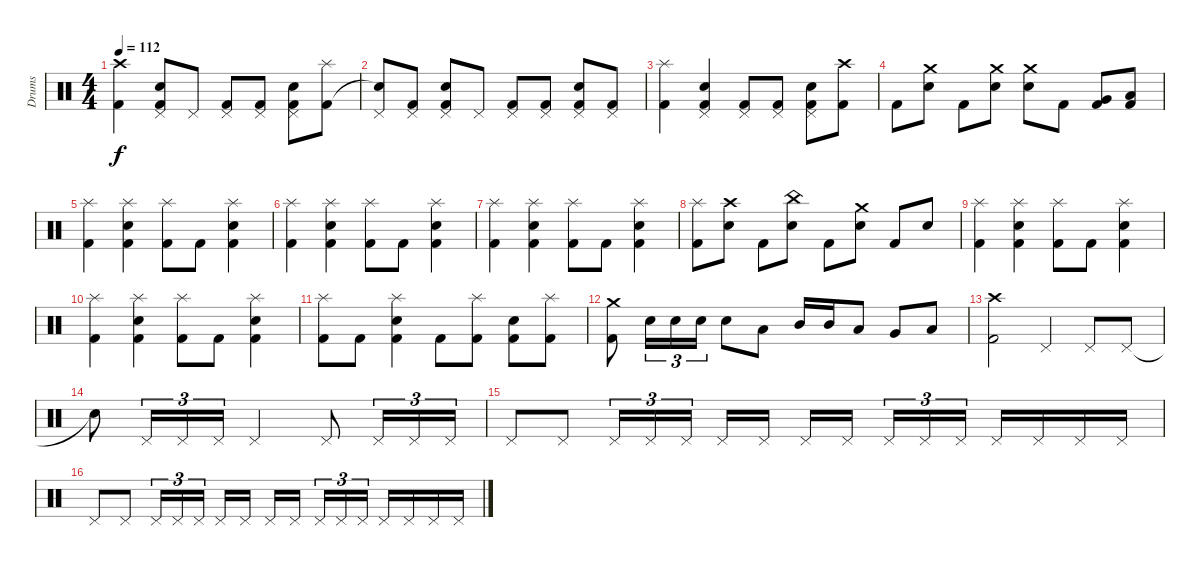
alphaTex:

\track ("Drums" "Drums") {instrument percussion}
\staff {score}
\articulation defaults
\ts (4 4)
\tempo 112
\clef neutral
\ks c
("Crash high (hit)" "Kick (hit) 2").4{dy f} ("Pedal Hi-Hat (hit)" "Electric Snare (hit)" "Kick (hit) 2").8 "Pedal Hi-Hat (hit)".8 ("Pedal Hi-Hat (hit)" "Kick (hit) 2").8 ("Pedal Hi-Hat (hit)" "Kick (hit) 2").8 ("Pedal Hi-Hat (hit)" "Electric Snare (hit)" "Kick (hit) 2").8 ("Splash (hit)" "Kick (hit) 2").8 |
("Pedal Hi-Hat (hit)" "Snare (hit)"{t}).8 ("Pedal Hi-Hat (hit)" "Kick (hit) 2").8 ("Pedal Hi-Hat (hit)" "Electric Snare (hit)" "Kick (hit) 2").8 "Pedal Hi-Hat (hit)".8 ("Pedal Hi-Hat (hit)" "Kick (hit) 2").8 ("Pedal Hi-Hat (hit)" "Kick (hit) 2").8 ("Pedal Hi-Hat (hit)" "Electric Snare (hit)" "Kick (hit) 2").8 ("Pedal Hi-Hat (hit)" "Kick (hit) 2").8 |
("Splash (hit)" "Kick (hit) 2").4 ("Pedal Hi-Hat (hit)" "Electric Snare (hit)" "Kick (hit) 2").4 ("Pedal Hi-Hat (hit)" "Kick (hit) 2").8 ("Pedal Hi-Hat (hit)" "Kick (hit) 2").8 ("Pedal Hi-Hat (hit)" "Electric Snare (hit)" "Kick (hit) 2").8 ("Crash high (hit)" "Kick (hit) 2").8 |
"Kick (hit) 2".8 ("Crash medium (hit)" "Electric Snare (hit)").8 "Kick (hit) 2".8 ("Crash medium (hit)" "Electric Snare (hit)").8 ("Crash medium (hit)" "Electric Snare (hit)").8 "Kick (hit) 2".8 ("Very Low Tom (hit)" "Kick (hit) 2").8 ("Low Floor Tom (hit)" "Kick (hit) 2").8 |
("Splash (hit)" "Kick (hit) 2").4 ("Splash (hit)" "Electric Snare (hit)" "Kick (hit) 2").4 ("Splash (hit)" "Kick (hit) 2").8 "Kick (hit) 2".8 ("Splash (hit)" "Electric Snare (hit)" "Kick (hit) 2").4 |
("Splash (hit)" "Kick (hit) 2").4 ("Splash (hit)" "Electric Snare (hit)" "Kick (hit) 2").4 ("Splash (hit)" "Kick (hit) 2").8 "Kick (hit) 2".8 ("Splash (hit)" "Electric Snare (hit)" "Kick (hit) 2").4 |
("Splash (hit)" "Kick (hit) 2").4 ("Splash (hit)" "Electric Snare (hit)" "Kick (hit) 2").4 ("Splash (hit)" "Kick (hit) 2").8 "Kick (hit) 2".8 ("Splash (hit)" "Electric Snare (hit)" "Kick (hit) 2").4 |
("Splash (hit)" "Kick (hit) 2").8 ("Crash high (hit)" "Electric Snare (hit)").8 "Kick (hit) 2".8 ("China (hit)" "Electric Snare (hit)").8 "Kick (hit) 2".8 ("Crash medium (hit)" "Electric Snare (hit)").8 "Kick (hit) 2".8 "Electric Snare (hit)".8 |
("Splash (hit)" "Kick (hit) 2").4 ("Splash (hit)" "Electric Snare (hit)" "Kick (hit) 2").4 ("Splash (hit)" "Kick (hit) 2").8 "Kick (hit) 2".8 ("Splash (hit)" "Electric Snare (hit)" "Kick (hit) 2").4 |
("Splash (hit)" "Kick (hit) 2").4 ("Splash (hit)" "Electric Snare (hit)" "Kick (hit) 2").4 ("Splash (hit)" "Kick (hit) 2").8 "Kick (hit) 2".8 ("Splash (hit)" "Electric Snare (hit)" "Kick (hit) 2").4 |
("Splash (hit)" "Kick (hit) 2").8 "Kick (hit) 2".8 ("Splash (hit)" "Electric Snare (hit)" "Kick (hit) 2").4 "Kick (hit) 2".8 ("Splash (hit)" "Kick (hit) 2").8 ("Electric Snare (hit)" "Kick (hit) 2").8 ("Splash (hit)" "Kick (hit) 2").8 |
("Crash medium (hit)" "Kick (hit) 2").8 "Electric Snare (hit)".16{tu (3 2)} "Electric Snare (hit)".16{tu (3 2)} "Electric Snare (hit)".16{tu (3 2)} "Electric Snare (hit)".8 "Low Tom (hit)".8 "Mid Tom (hit)".16 "Mid Tom (hit)".16 "Low Floor Tom (hit)".8 "Very Low Tom (hit)".8 "Low Floor Tom (hit)".8 |
("Crash high (hit)" "Kick (hit) 2").2 "Pedal Hi-Hat (hit)".4 "Pedal Hi-Hat (hit)".8 "Pedal Hi-Hat (hit)".8 |
"Snare (hit)"{t}.8 "Pedal Hi-Hat (hit)".16{tu (3 2)} "Pedal Hi-Hat (hit)".16{tu (3 2)} "Pedal Hi-Hat (hit)".16{tu (3 2)} "Pedal Hi-Hat (hit)".2 "Pedal Hi-Hat (hit)".8 "Pedal Hi-Hat (hit)".16{tu (3 2)} "Pedal Hi-Hat (hit)".16{tu (3 2)} "Pedal Hi-Hat (hit)".16{tu (3 2)} |
"Pedal Hi-Hat (hit)".8 "Pedal Hi-Hat (hit)".8 "Pedal Hi-Hat (hit)".16{tu (3 2)} "Pedal Hi-Hat (hit)".16{tu (3 2)} "Pedal Hi-Hat (hit)".16{tu (3 2) beam splitsecondary} "Pedal Hi-Hat (hit)".16 "Pedal Hi-Hat (hit)".16 "Pedal Hi-Hat (hit)".16 "Pedal Hi-Hat (hit)".16{beam splitsecondary} "Pedal Hi-Hat (hit)".16{tu (3 2)} "Pedal Hi-Hat (hit)".16{tu (3 2)} "Pedal Hi-Hat (hit)".16{tu (3 2)} "Pedal Hi-Hat (hit)".16 "Pedal Hi-Hat (hit)".16 "Pedal Hi-Hat (hit)".16 "Pedal Hi-Hat (hit)".16 |
"Pedal Hi-Hat (hit)".8 "Pedal Hi-Hat (hit)".8 "Pedal Hi-Hat (hit)".16{tu (3 2)} "Pedal Hi-Hat (hit)".16{tu (3 2)} "Pedal Hi-Hat (hit)".16{tu (3 2) beam splitsecondary} "Pedal Hi-Hat (hit)".16 "Pedal Hi-Hat (hit)".16 "Pedal Hi-Hat (hit)".16 "Pedal Hi-Hat (hit)".16{beam splitsecondary} "Pedal Hi-Hat (hit)".16{tu (3 2)} "Pedal Hi-Hat (hit)".16{tu (3 2)} "Pedal Hi-Hat (hit)".16{tu (3 2)} "Pedal Hi-Hat (hit)".16 "Pedal Hi-Hat (hit)".16 "Pedal Hi-Hat (hit)".16 "Pedal Hi-Hat (hit)".16
